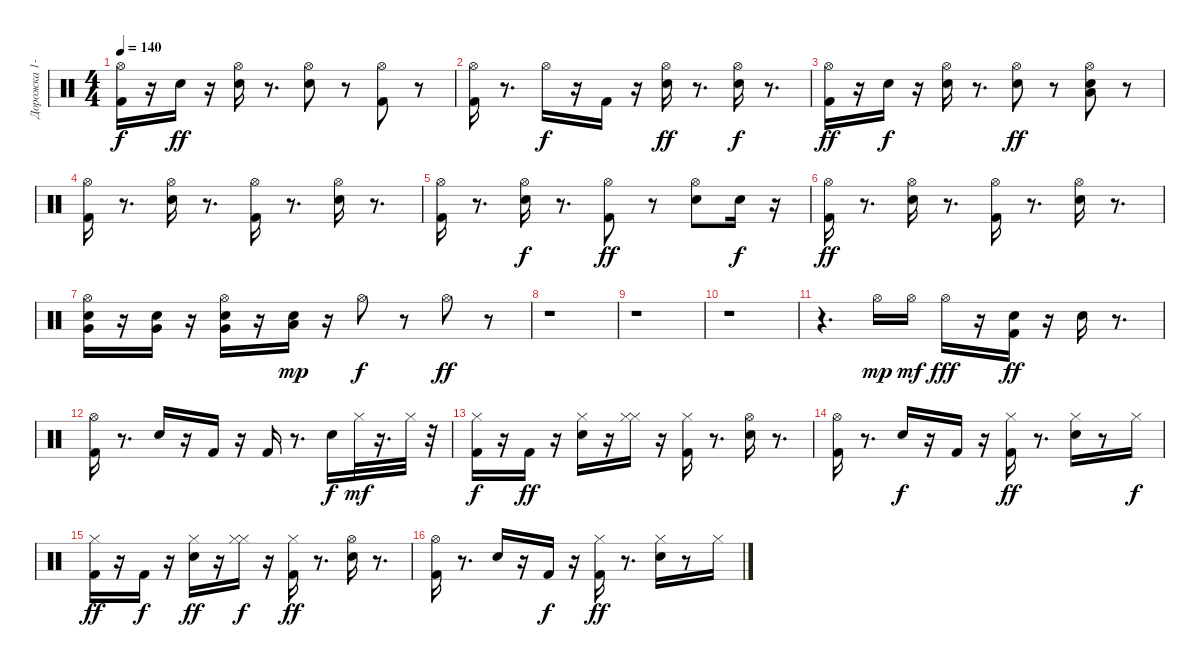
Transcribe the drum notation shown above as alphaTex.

\track ("Дорожка 1-2" "Дорожка 1-") {instrument percussion}
\staff {score}
\articulation defaults
\ts (4 4)
\tempo 140
\clef neutral
\ks c
("Hi-Hat (open)" "Kick (hit) 2").16{dy f} r.16 "Electric Snare (hit)".16{dy ff} r.16 ("Hi-Hat (open)" "Electric Snare (hit)").16 r.8{d} ("Hi-Hat (open)" "Electric Snare (hit)").8 r.8 ("Hi-Hat (open)" "Kick (hit) 2").8 r.8 |
("Hi-Hat (open)" "Kick (hit) 2").16 r.8{d} "Hi-Hat (open)".16{dy f} r.16 "Kick (hit) 2".16 r.16 ("Hi-Hat (open)" "Electric Snare (hit)").16{dy ff} r.8{d} ("Hi-Hat (open)" "Electric Snare (hit)").16{dy f} r.8{d} |
("Hi-Hat (open)" "Kick (hit) 2").16{dy ff} r.16 "Electric Snare (hit)".16{dy f} r.16 ("Hi-Hat (open)" "Electric Snare (hit)").16 r.8{d} ("Hi-Hat (open)" "Electric Snare (hit)").8{dy ff} r.8 ("Electric Snare (hit)" "Hi-Hat (open)" "Low Floor Tom (hit)").8 r.8 |
("Hi-Hat (open)" "Kick (hit) 2").16 r.8{d} ("Hi-Hat (open)" "Electric Snare (hit)").16 r.8{d} ("Hi-Hat (open)" "Kick (hit) 2").16 r.8{d} ("Hi-Hat (open)" "Electric Snare (hit)").16 r.8{d} |
("Hi-Hat (open)" "Kick (hit) 2").16 r.8{d} ("Hi-Hat (open)" "Electric Snare (hit)").16{dy f} r.8{d} ("Hi-Hat (open)" "Kick (hit) 2").8{dy ff} r.8 ("Hi-Hat (open)" "Electric Snare (hit)").8 "Electric Snare (hit)".16{dy f} r.16 |
("Hi-Hat (open)" "Kick (hit) 2").16{dy ff} r.8{d} ("Hi-Hat (open)" "Electric Snare (hit)").16 r.8{d} ("Hi-Hat (open)" "Kick (hit) 2").16 r.8{d} ("Hi-Hat (open)" "Electric Snare (hit)").16 r.8{d} |
("Very Low Tom (hit)" "Hi-Hat (open)" "Electric Snare (hit)").16 r.16 ("Very Low Tom (hit)" "Electric Snare (hit)").16 r.16 ("Very Low Tom (hit)" "Hi-Hat (open)" "Electric Snare (hit)").16 r.16 ("Electric Snare (hit)" "Low Tom (hit)").16{dy mp} r.16 "Hi-Hat (open)".8{dy f} r.8 "Hi-Hat (open)".8{dy ff} r.8 |
r.1 |
r.1 |
r.1 |
r.4{d} "Hi-Hat (open)".16{dy mp} "Hi-Hat (open)".16{dy mf} "Hi-Hat (open)".16{dy fff} r.16 ("Kick (hit) 2" "Electric Snare (hit)").16{dy ff} r.16 "Electric Snare (hit)".16 r.8{d} |
("Hi-Hat (open)" "Kick (hit) 2").16 r.8{d} "Electric Snare (hit)".16 r.16 "Kick (hit) 2".16 r.16 "Kick (hit) 2".16 r.8{d} "Electric Snare (hit)".16{dy f} "Hi-Hat (closed)".32{dy mf} r.16{d} "Hi-Hat (closed)".32 r.32 |
("Hi-Hat (closed)" "Kick (hit) 2").16{dy f} r.16 "Kick (hit) 2".16{dy ff} r.16 ("Hi-Hat (closed)" "Electric Snare (hit)").16 r.16 ("Hi-Hat (closed)" "Hi-Hat (closed)").16 r.16 ("Kick (hit) 2" "Hi-Hat (closed)").16 r.8{d} ("Hi-Hat (open)" "Electric Snare (hit)").16 r.8{d} |
("Kick (hit) 2" "Hi-Hat (open)").16 r.8{d} "Electric Snare (hit)".16{dy f} r.16 "Kick (hit) 2".16 r.16 ("Kick (hit) 2" "Hi-Hat (closed)").16{dy ff} r.8{d} ("Electric Snare (hit)" "Hi-Hat (closed)").16 r.8 "Hi-Hat (closed)".16{dy f} |
("Hi-Hat (closed)" "Kick (hit) 2").16{dy ff} r.16 "Kick (hit) 2".16{dy f} r.16 ("Hi-Hat (closed)" "Electric Snare (hit)").16{dy ff} r.16 ("Hi-Hat (closed)" "Hi-Hat (closed)").16{dy f} r.16 ("Kick (hit) 2" "Hi-Hat (closed)").16{dy ff} r.8{d} ("Hi-Hat (open)" "Electric Snare (hit)").16 r.8{d} |
("Kick (hit) 2" "Hi-Hat (open)").16 r.8{d} "Electric Snare (hit)".16 r.16 "Kick (hit) 2".16{dy f} r.16 ("Kick (hit) 2" "Hi-Hat (closed)").16{dy ff} r.8{d} ("Electric Snare (hit)" "Hi-Hat (closed)").16 r.8 "Hi-Hat (closed)".16
